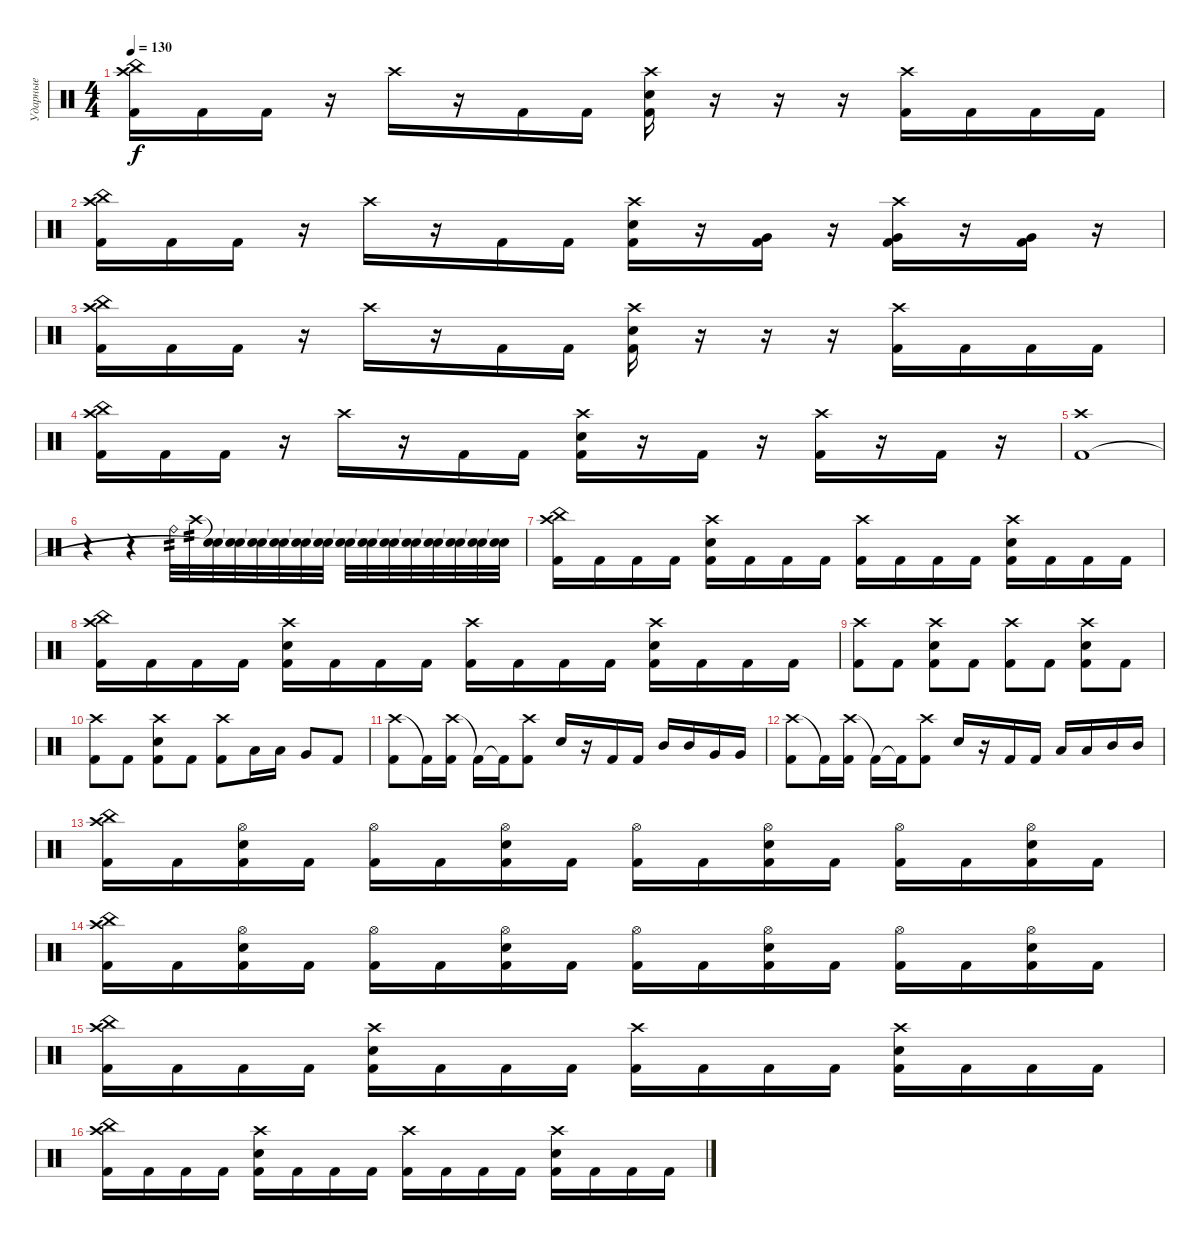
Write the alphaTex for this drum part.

\track ("Ударные" "Ударные") {instrument percussion}
\staff {score}
\articulation defaults
\ts (4 4)
\tempo 130
\clef neutral
\ks c
("Crash high (hit)" "China (hit)" "Kick (hit) 2").16{dy f} "Kick (hit) 2".16 "Kick (hit) 2".16 r.16 "Crash high (hit)".16 r.16 "Kick (hit) 2".16 "Kick (hit) 2".16 ("Crash high (hit)" "Snare (hit) 2" "Kick (hit) 2").16 r.16 r.16 r.16 ("Crash high (hit)" "Kick (hit) 2").16 "Kick (hit) 2".16 "Kick (hit) 2".16 "Kick (hit) 2".16 |
("Crash high (hit)" "China (hit)" "Kick (hit) 2").16 "Kick (hit) 2".16 "Kick (hit) 2".16 r.16 "Crash high (hit)".16 r.16 "Kick (hit) 2".16 "Kick (hit) 2".16 ("Crash high (hit)" "Snare (hit) 2" "Kick (hit) 2").16 r.16 ("Very Low Tom (hit)" "Kick (hit) 2").16 r.16 ("Crash high (hit)" "Very Low Tom (hit)" "Kick (hit) 2").16 r.16 ("Very Low Tom (hit)" "Kick (hit) 2").16 r.16 |
("Crash high (hit)" "China (hit)" "Kick (hit) 2").16 "Kick (hit) 2".16 "Kick (hit) 2".16 r.16 "Crash high (hit)".16 r.16 "Kick (hit) 2".16 "Kick (hit) 2".16 ("Crash high (hit)" "Snare (hit) 2" "Kick (hit) 2").16 r.16 r.16 r.16 ("Crash high (hit)" "Kick (hit) 2").16 "Kick (hit) 2".16 "Kick (hit) 2".16 "Kick (hit) 2".16 |
("Crash high (hit)" "China (hit)" "Kick (hit) 2").16 "Kick (hit) 2".16 "Kick (hit) 2".16 r.16 "Crash high (hit)".16 r.16 "Kick (hit) 2".16 "Kick (hit) 2".16 ("Crash high (hit)" "Snare (hit) 2" "Kick (hit) 2").16 r.16 "Kick (hit) 2".16 r.16 ("Crash high (hit)" "Kick (hit) 2").16 r.16 "Kick (hit) 2".16 r.16 |
("Crash high (hit)" "Kick (hit) 2").1 |
r.4{volume 5} r.4 "Ride (bell)".32{tp 2 volume 13} "Crash high (hit)".32{tp 2} ("Snare (hit)"{t} "Snare (hit)"{t}).32 ("Snare (hit)"{t} "Snare (hit)"{t}).32 ("Snare (hit)"{t} "Snare (hit)"{t}).32 ("Snare (hit)"{t} "Snare (hit)"{t}).32 ("Snare (hit)"{t} "Snare (hit)"{t}).32 ("Snare (hit)"{t} "Snare (hit)"{t}).32 ("Snare (hit)"{t} "Snare (hit)"{t}).32 ("Snare (hit)"{t} "Snare (hit)"{t}).32 ("Snare (hit)"{t} "Snare (hit)"{t}).32 ("Snare (hit)"{t} "Snare (hit)"{t}).32 ("Snare (hit)"{t} "Snare (hit)"{t}).32 ("Snare (hit)"{t} "Snare (hit)"{t}).32 ("Snare (hit)"{t} "Snare (hit)"{t}).32 ("Snare (hit)"{t} "Snare (hit)"{t}).32 |
("Crash high (hit)" "China (hit)" "Kick (hit) 2").16 "Kick (hit) 2".16 "Kick (hit) 2".16 "Kick (hit) 2".16 ("Crash high (hit)" "Snare (hit) 2" "Kick (hit) 2").16 "Kick (hit) 2".16 "Kick (hit) 2".16 "Kick (hit) 2".16 ("Crash high (hit)" "Kick (hit) 2").16 "Kick (hit) 2".16 "Kick (hit) 2".16 "Kick (hit) 2".16 ("Crash high (hit)" "Snare (hit) 2" "Kick (hit) 2").16 "Kick (hit) 2".16 "Kick (hit) 2".16 "Kick (hit) 2".16 |
("Crash high (hit)" "China (hit)" "Kick (hit) 2").16 "Kick (hit) 2".16 "Kick (hit) 2".16 "Kick (hit) 2".16 ("Crash high (hit)" "Snare (hit) 2" "Kick (hit) 2").16 "Kick (hit) 2".16 "Kick (hit) 2".16 "Kick (hit) 2".16 ("Crash high (hit)" "Kick (hit) 2").16 "Kick (hit) 2".16 "Kick (hit) 2".16 "Kick (hit) 2".16 ("Crash high (hit)" "Snare (hit) 2" "Kick (hit) 2").16 "Kick (hit) 2".16 "Kick (hit) 2".16 "Kick (hit) 2".16 |
("Crash high (hit)" "Kick (hit) 2").8 "Kick (hit) 2".8 ("Crash high (hit)" "Snare (hit) 2" "Kick (hit) 2").8 "Kick (hit) 2".8 ("Crash high (hit)" "Kick (hit) 2").8 "Kick (hit) 2".8 ("Crash high (hit)" "Snare (hit) 2" "Kick (hit) 2").8 "Kick (hit) 2".8 |
("Crash high (hit)" "Kick (hit) 2").8 "Kick (hit) 2".8 ("Crash high (hit)" "Snare (hit) 2" "Kick (hit) 2").8 "Kick (hit) 2".8 ("Crash high (hit)" "Kick (hit) 2").8 "Low Tom (hit)".16 "Low Tom (hit)".16 "Very Low Tom (hit)".8 "Kick (hit) 2".8 |
("Crash high (hit)" "Kick (hit) 2").8 "Kick (hit) 2"{t}.16 ("Crash high (hit)" "Kick (hit) 2").16 "Kick (hit) 2"{t}.16 "Kick (hit) 2"{t}.16 ("Crash high (hit)" "Kick (hit) 2").8 "Snare (hit) 2".16 r.16 "Kick (hit) 2".16 "Kick (hit) 2".16 "Mid Tom (hit)".16 "Mid Tom (hit)".16 "Very Low Tom (hit)".16 "Very Low Tom (hit)".16 |
("Crash high (hit)" "Kick (hit) 2").8 "Kick (hit) 2"{t}.16 ("Crash high (hit)" "Kick (hit) 2").16 "Kick (hit) 2"{t}.16 "Kick (hit) 2"{t}.16 ("Crash high (hit)" "Kick (hit) 2").8 "Snare (hit) 2".16 r.16 "Kick (hit) 2".16 "Kick (hit) 2".16 "Low Tom (hit)".16 "Low Tom (hit)".16 "Mid Tom (hit)".16 "Mid Tom (hit)".16 |
("Crash high (hit)" "China (hit)" "Kick (hit) 2").16 "Kick (hit) 2".16 ("Hi-Hat (open)" "Snare (hit) 2" "Kick (hit) 2").16 "Kick (hit) 2".16 ("Hi-Hat (open)" "Kick (hit) 2").16 "Kick (hit) 2".16 ("Hi-Hat (open)" "Snare (hit) 2" "Kick (hit) 2").16 "Kick (hit) 2".16 ("Hi-Hat (open)" "Kick (hit) 2").16 "Kick (hit) 2".16 ("Hi-Hat (open)" "Snare (hit) 2" "Kick (hit) 2").16 "Kick (hit) 2".16 ("Hi-Hat (open)" "Kick (hit) 2").16 "Kick (hit) 2".16 ("Hi-Hat (open)" "Snare (hit) 2" "Kick (hit) 2").16 "Kick (hit) 2".16 |
("Crash high (hit)" "China (hit)" "Kick (hit) 2").16 "Kick (hit) 2".16 ("Hi-Hat (open)" "Snare (hit) 2" "Kick (hit) 2").16 "Kick (hit) 2".16 ("Hi-Hat (open)" "Kick (hit) 2").16 "Kick (hit) 2".16 ("Hi-Hat (open)" "Snare (hit) 2" "Kick (hit) 2").16 "Kick (hit) 2".16 ("Hi-Hat (open)" "Kick (hit) 2").16 "Kick (hit) 2".16 ("Hi-Hat (open)" "Snare (hit) 2" "Kick (hit) 2").16 "Kick (hit) 2".16 ("Hi-Hat (open)" "Kick (hit) 2").16 "Kick (hit) 2".16 ("Hi-Hat (open)" "Snare (hit) 2" "Kick (hit) 2").16 "Kick (hit) 2".16 |
("Crash high (hit)" "China (hit)" "Kick (hit) 2").16 "Kick (hit) 2".16 "Kick (hit) 2".16 "Kick (hit) 2".16 ("Crash high (hit)" "Snare (hit) 2" "Kick (hit) 2").16 "Kick (hit) 2".16 "Kick (hit) 2".16 "Kick (hit) 2".16 ("Crash high (hit)" "Kick (hit) 2").16 "Kick (hit) 2".16 "Kick (hit) 2".16 "Kick (hit) 2".16 ("Crash high (hit)" "Snare (hit) 2" "Kick (hit) 2").16 "Kick (hit) 2".16 "Kick (hit) 2".16 "Kick (hit) 2".16 |
("Crash high (hit)" "China (hit)" "Kick (hit) 2").16 "Kick (hit) 2".16 "Kick (hit) 2".16 "Kick (hit) 2".16 ("Crash high (hit)" "Snare (hit) 2" "Kick (hit) 2").16 "Kick (hit) 2".16 "Kick (hit) 2".16 "Kick (hit) 2".16 ("Crash high (hit)" "Kick (hit) 2").16 "Kick (hit) 2".16 "Kick (hit) 2".16 "Kick (hit) 2".16 ("Crash high (hit)" "Snare (hit) 2" "Kick (hit) 2").16 "Kick (hit) 2".16 "Kick (hit) 2".16 "Kick (hit) 2".16
